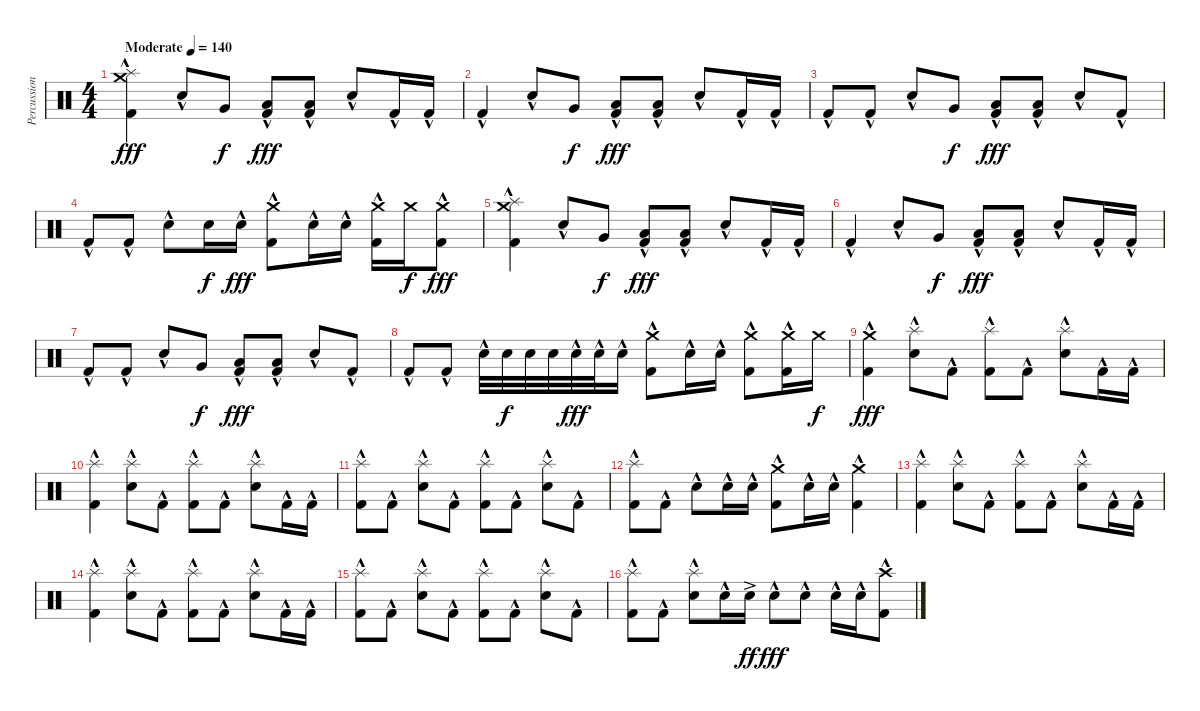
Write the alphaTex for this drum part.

\track ("Percussion" "Percussion") {instrument percussion}
\staff {score}
\articulation defaults
\ts (4 4)
\tempo (140 "Moderate")
\clef neutral
\ks c
("Crash medium (hit)" "Splash (hit)" "Kick (hit) 2"{hac}).4{dy fff} "Electric Snare (hit)"{hac}.8 "Very Low Tom (hit)".8{dy f} ("Low Tom (hit)" "Kick (hit) 2"{hac}).8{dy fff} ("Low Tom (hit)" "Kick (hit) 2"{hac}).8 "Electric Snare (hit)"{hac}.8 "Kick (hit) 2"{hac}.16 "Kick (hit) 2"{hac}.16 |
"Kick (hit) 2"{hac}.4 "Electric Snare (hit)"{hac}.8 "Very Low Tom (hit)".8{dy f} ("Low Tom (hit)" "Kick (hit) 2"{hac}).8{dy fff} ("Low Tom (hit)" "Kick (hit) 2"{hac}).8 "Electric Snare (hit)"{hac}.8 "Kick (hit) 2"{hac}.16 "Kick (hit) 2"{hac}.16 |
"Kick (hit) 2"{hac}.8 "Kick (hit) 2"{hac}.8 "Electric Snare (hit)"{hac}.8 "Very Low Tom (hit)".8{dy f} ("Low Tom (hit)" "Kick (hit) 2"{hac}).8{dy fff} ("Low Tom (hit)" "Kick (hit) 2"{hac}).8 "Electric Snare (hit)"{hac}.8 "Kick (hit) 2"{hac}.8 |
"Kick (hit) 2"{hac}.8 "Kick (hit) 2"{hac}.8 "Electric Snare (hit)"{hac}.8 "Electric Snare (hit)".16{dy f} "Electric Snare (hit)"{hac}.16{dy fff} ("Crash medium (hit)" "Kick (hit) 2"{hac}).8 "Electric Snare (hit)"{hac}.16 "Electric Snare (hit)"{hac}.16 ("Crash medium (hit)" "Kick (hit) 2"{hac}).16 "Crash medium (hit)".16{dy f} ("Crash medium (hit)" "Kick (hit) 2"{hac}).8{dy fff} |
("Splash (hit)" "Crash medium (hit)" "Kick (hit) 2"{hac}).4 "Electric Snare (hit)"{hac}.8 "Very Low Tom (hit)".8{dy f} ("Low Tom (hit)" "Kick (hit) 2"{hac}).8{dy fff} ("Low Tom (hit)" "Kick (hit) 2"{hac}).8 "Electric Snare (hit)"{hac}.8 "Kick (hit) 2"{hac}.16 "Kick (hit) 2"{hac}.16 |
"Kick (hit) 2"{hac}.4 "Electric Snare (hit)"{hac}.8 "Very Low Tom (hit)".8{dy f} ("Low Tom (hit)" "Kick (hit) 2"{hac}).8{dy fff} ("Low Tom (hit)" "Kick (hit) 2"{hac}).8 "Electric Snare (hit)"{hac}.8 "Kick (hit) 2"{hac}.16 "Kick (hit) 2"{hac}.16 |
"Kick (hit) 2"{hac}.8 "Kick (hit) 2"{hac}.8 "Electric Snare (hit)"{hac}.8 "Very Low Tom (hit)".8{dy f} ("Low Tom (hit)" "Kick (hit) 2"{hac}).8{dy fff} ("Low Tom (hit)" "Kick (hit) 2"{hac}).8 "Electric Snare (hit)"{hac}.8 "Kick (hit) 2"{hac}.8 |
"Kick (hit) 2"{hac}.8 "Kick (hit) 2"{hac}.8 "Electric Snare (hit)"{hac}.32 "Electric Snare (hit)".32{dy f} "Electric Snare (hit)".32 "Electric Snare (hit)".32 "Electric Snare (hit)"{hac}.32{dy fff} "Electric Snare (hit)"{hac}.32 "Electric Snare (hit)"{hac}.16 ("Crash medium (hit)" "Kick (hit) 2"{hac}).8 "Electric Snare (hit)"{hac}.16 "Electric Snare (hit)"{hac}.16 ("Crash medium (hit)" "Kick (hit) 2"{hac}).8 ("Crash medium (hit)" "Kick (hit) 2"{hac}).16 "Crash medium (hit)".16{dy f} |
("Crash medium (hit)" "Kick (hit) 2"{hac}).4{dy fff} ("Splash (hit)" "Electric Snare (hit)"{hac}).8 "Kick (hit) 2"{hac}.8 ("Splash (hit)" "Kick (hit) 2"{hac}).8 "Kick (hit) 2"{hac}.8 ("Splash (hit)" "Electric Snare (hit)"{hac}).8 "Kick (hit) 2"{hac}.16 "Kick (hit) 2"{hac}.16 |
("Splash (hit)" "Kick (hit) 2"{hac}).4 ("Splash (hit)" "Electric Snare (hit)"{hac}).8 "Kick (hit) 2"{hac}.8 ("Splash (hit)" "Kick (hit) 2"{hac}).8 "Kick (hit) 2"{hac}.8 ("Splash (hit)" "Electric Snare (hit)"{hac}).8 "Kick (hit) 2"{hac}.16 "Kick (hit) 2"{hac}.16 |
("Splash (hit)" "Kick (hit) 2"{hac}).8 "Kick (hit) 2"{hac}.8 ("Splash (hit)" "Electric Snare (hit)"{hac}).8 "Kick (hit) 2"{hac}.8 ("Splash (hit)" "Kick (hit) 2"{hac}).8 "Kick (hit) 2"{hac}.8 ("Splash (hit)" "Electric Snare (hit)"{hac}).8 "Kick (hit) 2"{hac}.8 |
("Splash (hit)" "Kick (hit) 2"{hac}).8 "Kick (hit) 2"{hac}.8 "Electric Snare (hit)"{hac}.8 "Electric Snare (hit)"{hac}.16 "Electric Snare (hit)"{hac}.16 ("Crash medium (hit)" "Kick (hit) 2"{hac}).8 "Electric Snare (hit)"{hac}.16 "Electric Snare (hit)"{hac}.16 ("Crash medium (hit)" "Kick (hit) 2"{hac}).4 |
("Splash (hit)" "Kick (hit) 2"{hac}).4 ("Splash (hit)" "Electric Snare (hit)"{hac}).8 "Kick (hit) 2"{hac}.8 ("Splash (hit)" "Kick (hit) 2"{hac}).8 "Kick (hit) 2"{hac}.8 ("Splash (hit)" "Electric Snare (hit)"{hac}).8 "Kick (hit) 2"{hac}.16 "Kick (hit) 2"{hac}.16 |
("Splash (hit)" "Kick (hit) 2"{hac}).4 ("Splash (hit)" "Electric Snare (hit)"{hac}).8 "Kick (hit) 2"{hac}.8 ("Splash (hit)" "Kick (hit) 2"{hac}).8 "Kick (hit) 2"{hac}.8 ("Splash (hit)" "Electric Snare (hit)"{hac}).8 "Kick (hit) 2"{hac}.16 "Kick (hit) 2"{hac}.16 |
("Splash (hit)" "Kick (hit) 2"{hac}).8 "Kick (hit) 2"{hac}.8 ("Splash (hit)" "Electric Snare (hit)"{hac}).8 "Kick (hit) 2"{hac}.8 ("Splash (hit)" "Kick (hit) 2"{hac}).8 "Kick (hit) 2"{hac}.8 ("Splash (hit)" "Electric Snare (hit)"{hac}).8 "Kick (hit) 2"{hac}.8 |
("Splash (hit)" "Kick (hit) 2"{hac}).8 "Kick (hit) 2"{hac}.8 ("Splash (hit)" "Electric Snare (hit)"{hac}).8 "Electric Snare (hit)"{hac}.16 "Electric Snare (hit)"{ac}.16{dy ff} "Electric Snare (hit)"{hac}.8{dy fff} "Electric Snare (hit)"{hac}.8 "Electric Snare (hit)"{hac}.16 "Electric Snare (hit)"{hac}.16 ("Crash high (hit)" "Kick (hit) 2"{hac}).8
